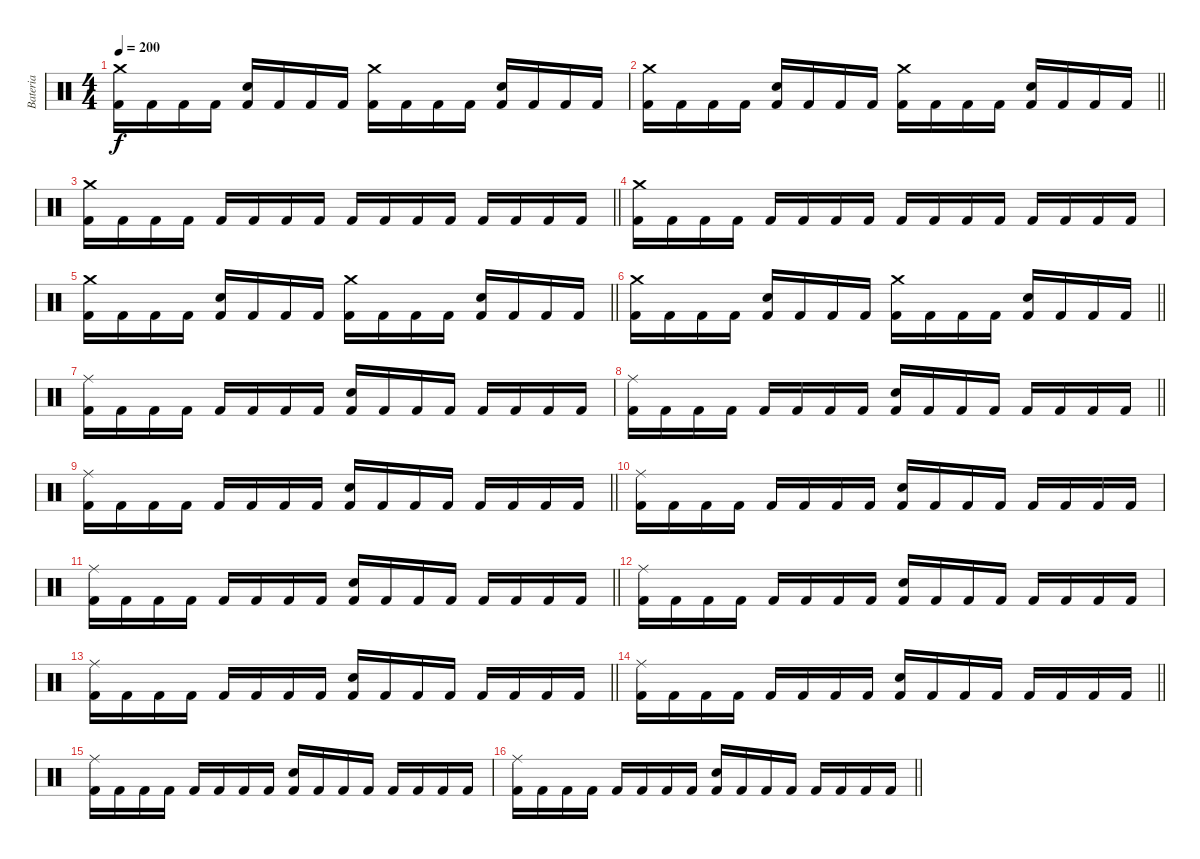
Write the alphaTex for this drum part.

\track ("Bateria" "Bateria") {instrument percussion}
\staff {score}
\articulation defaults
\ts (4 4)
\tempo 200
\clef neutral
\ks c
("Crash medium (hit)" "Kick (hit) 2").16{dy f} "Kick (hit) 2".16 "Kick (hit) 2".16 "Kick (hit) 2".16 ("Electric Snare (hit)" "Kick (hit) 2").16 "Kick (hit) 2".16 "Kick (hit) 2".16 "Kick (hit) 2".16 ("Crash medium (hit)" "Kick (hit) 2").16 "Kick (hit) 2".16 "Kick (hit) 2".16 "Kick (hit) 2".16 ("Electric Snare (hit)" "Kick (hit) 2").16 "Kick (hit) 2".16 "Kick (hit) 2".16 "Kick (hit) 2".16 |
\barLineRight lightlight
("Crash medium (hit)" "Kick (hit) 2").16 "Kick (hit) 2".16 "Kick (hit) 2".16 "Kick (hit) 2".16 ("Electric Snare (hit)" "Kick (hit) 2").16 "Kick (hit) 2".16 "Kick (hit) 2".16 "Kick (hit) 2".16 ("Crash medium (hit)" "Kick (hit) 2").16 "Kick (hit) 2".16 "Kick (hit) 2".16 "Kick (hit) 2".16 ("Electric Snare (hit)" "Kick (hit) 2").16 "Kick (hit) 2".16 "Kick (hit) 2".16 "Kick (hit) 2".16 |
\barLineRight lightlight
("Crash medium (hit)" "Kick (hit) 2").16 "Kick (hit) 2".16 "Kick (hit) 2".16 "Kick (hit) 2".16 "Kick (hit) 2".16 "Kick (hit) 2".16 "Kick (hit) 2".16 "Kick (hit) 2".16 "Kick (hit) 2".16 "Kick (hit) 2".16 "Kick (hit) 2".16 "Kick (hit) 2".16 "Kick (hit) 2".16 "Kick (hit) 2".16 "Kick (hit) 2".16 "Kick (hit) 2".16 |
("Crash medium (hit)" "Kick (hit) 2").16 "Kick (hit) 2".16 "Kick (hit) 2".16 "Kick (hit) 2".16 "Kick (hit) 2".16 "Kick (hit) 2".16 "Kick (hit) 2".16 "Kick (hit) 2".16 "Kick (hit) 2".16 "Kick (hit) 2".16 "Kick (hit) 2".16 "Kick (hit) 2".16 "Kick (hit) 2".16 "Kick (hit) 2".16 "Kick (hit) 2".16 "Kick (hit) 2".16 |
\barLineRight lightlight
("Crash medium (hit)" "Kick (hit) 2").16 "Kick (hit) 2".16 "Kick (hit) 2".16 "Kick (hit) 2".16 ("Electric Snare (hit)" "Kick (hit) 2").16 "Kick (hit) 2".16 "Kick (hit) 2".16 "Kick (hit) 2".16 ("Crash medium (hit)" "Kick (hit) 2").16 "Kick (hit) 2".16 "Kick (hit) 2".16 "Kick (hit) 2".16 ("Electric Snare (hit)" "Kick (hit) 2").16 "Kick (hit) 2".16 "Kick (hit) 2".16 "Kick (hit) 2".16 |
\barLineRight lightlight
("Crash medium (hit)" "Kick (hit) 2").16 "Kick (hit) 2".16 "Kick (hit) 2".16 "Kick (hit) 2".16 ("Electric Snare (hit)" "Kick (hit) 2").16 "Kick (hit) 2".16 "Kick (hit) 2".16 "Kick (hit) 2".16 ("Crash medium (hit)" "Kick (hit) 2").16 "Kick (hit) 2".16 "Kick (hit) 2".16 "Kick (hit) 2".16 ("Electric Snare (hit)" "Kick (hit) 2").16 "Kick (hit) 2".16 "Kick (hit) 2".16 "Kick (hit) 2".16 |
("Ride (middle)" "Kick (hit) 2").16 "Kick (hit) 2".16 "Kick (hit) 2".16 "Kick (hit) 2".16 "Kick (hit) 2".16 "Kick (hit) 2".16 "Kick (hit) 2".16 "Kick (hit) 2".16 ("Electric Snare (hit)" "Kick (hit) 2").16 "Kick (hit) 2".16 "Kick (hit) 2".16 "Kick (hit) 2".16 "Kick (hit) 2".16 "Kick (hit) 2".16 "Kick (hit) 2".16 "Kick (hit) 2".16 |
\barLineRight lightlight
("Ride (middle)" "Kick (hit) 2").16 "Kick (hit) 2".16 "Kick (hit) 2".16 "Kick (hit) 2".16 "Kick (hit) 2".16 "Kick (hit) 2".16 "Kick (hit) 2".16 "Kick (hit) 2".16 ("Electric Snare (hit)" "Kick (hit) 2").16 "Kick (hit) 2".16 "Kick (hit) 2".16 "Kick (hit) 2".16 "Kick (hit) 2".16 "Kick (hit) 2".16 "Kick (hit) 2".16 "Kick (hit) 2".16 |
\barLineRight lightlight
("Ride (middle)" "Kick (hit) 2").16 "Kick (hit) 2".16 "Kick (hit) 2".16 "Kick (hit) 2".16 "Kick (hit) 2".16 "Kick (hit) 2".16 "Kick (hit) 2".16 "Kick (hit) 2".16 ("Electric Snare (hit)" "Kick (hit) 2").16 "Kick (hit) 2".16 "Kick (hit) 2".16 "Kick (hit) 2".16 "Kick (hit) 2".16 "Kick (hit) 2".16 "Kick (hit) 2".16 "Kick (hit) 2".16 |
("Ride (middle)" "Kick (hit) 2").16 "Kick (hit) 2".16 "Kick (hit) 2".16 "Kick (hit) 2".16 "Kick (hit) 2".16 "Kick (hit) 2".16 "Kick (hit) 2".16 "Kick (hit) 2".16 ("Electric Snare (hit)" "Kick (hit) 2").16 "Kick (hit) 2".16 "Kick (hit) 2".16 "Kick (hit) 2".16 "Kick (hit) 2".16 "Kick (hit) 2".16 "Kick (hit) 2".16 "Kick (hit) 2".16 |
\barLineRight lightlight
("Ride (middle)" "Kick (hit) 2").16 "Kick (hit) 2".16 "Kick (hit) 2".16 "Kick (hit) 2".16 "Kick (hit) 2".16 "Kick (hit) 2".16 "Kick (hit) 2".16 "Kick (hit) 2".16 ("Electric Snare (hit)" "Kick (hit) 2").16 "Kick (hit) 2".16 "Kick (hit) 2".16 "Kick (hit) 2".16 "Kick (hit) 2".16 "Kick (hit) 2".16 "Kick (hit) 2".16 "Kick (hit) 2".16 |
("Ride (middle)" "Kick (hit) 2").16 "Kick (hit) 2".16 "Kick (hit) 2".16 "Kick (hit) 2".16 "Kick (hit) 2".16 "Kick (hit) 2".16 "Kick (hit) 2".16 "Kick (hit) 2".16 ("Electric Snare (hit)" "Kick (hit) 2").16 "Kick (hit) 2".16 "Kick (hit) 2".16 "Kick (hit) 2".16 "Kick (hit) 2".16 "Kick (hit) 2".16 "Kick (hit) 2".16 "Kick (hit) 2".16 |
\barLineRight lightlight
("Ride (middle)" "Kick (hit) 2").16 "Kick (hit) 2".16 "Kick (hit) 2".16 "Kick (hit) 2".16 "Kick (hit) 2".16 "Kick (hit) 2".16 "Kick (hit) 2".16 "Kick (hit) 2".16 ("Electric Snare (hit)" "Kick (hit) 2").16 "Kick (hit) 2".16 "Kick (hit) 2".16 "Kick (hit) 2".16 "Kick (hit) 2".16 "Kick (hit) 2".16 "Kick (hit) 2".16 "Kick (hit) 2".16 |
\barLineRight lightlight
("Ride (middle)" "Kick (hit) 2").16 "Kick (hit) 2".16 "Kick (hit) 2".16 "Kick (hit) 2".16 "Kick (hit) 2".16 "Kick (hit) 2".16 "Kick (hit) 2".16 "Kick (hit) 2".16 ("Electric Snare (hit)" "Kick (hit) 2").16 "Kick (hit) 2".16 "Kick (hit) 2".16 "Kick (hit) 2".16 "Kick (hit) 2".16 "Kick (hit) 2".16 "Kick (hit) 2".16 "Kick (hit) 2".16 |
("Ride (middle)" "Kick (hit) 2").16 "Kick (hit) 2".16 "Kick (hit) 2".16 "Kick (hit) 2".16 "Kick (hit) 2".16 "Kick (hit) 2".16 "Kick (hit) 2".16 "Kick (hit) 2".16 ("Electric Snare (hit)" "Kick (hit) 2").16 "Kick (hit) 2".16 "Kick (hit) 2".16 "Kick (hit) 2".16 "Kick (hit) 2".16 "Kick (hit) 2".16 "Kick (hit) 2".16 "Kick (hit) 2".16 |
\barLineRight lightlight
("Ride (middle)" "Kick (hit) 2").16 "Kick (hit) 2".16 "Kick (hit) 2".16 "Kick (hit) 2".16 "Kick (hit) 2".16 "Kick (hit) 2".16 "Kick (hit) 2".16 "Kick (hit) 2".16 ("Electric Snare (hit)" "Kick (hit) 2").16 "Kick (hit) 2".16 "Kick (hit) 2".16 "Kick (hit) 2".16 "Kick (hit) 2".16 "Kick (hit) 2".16 "Kick (hit) 2".16 "Kick (hit) 2".16
